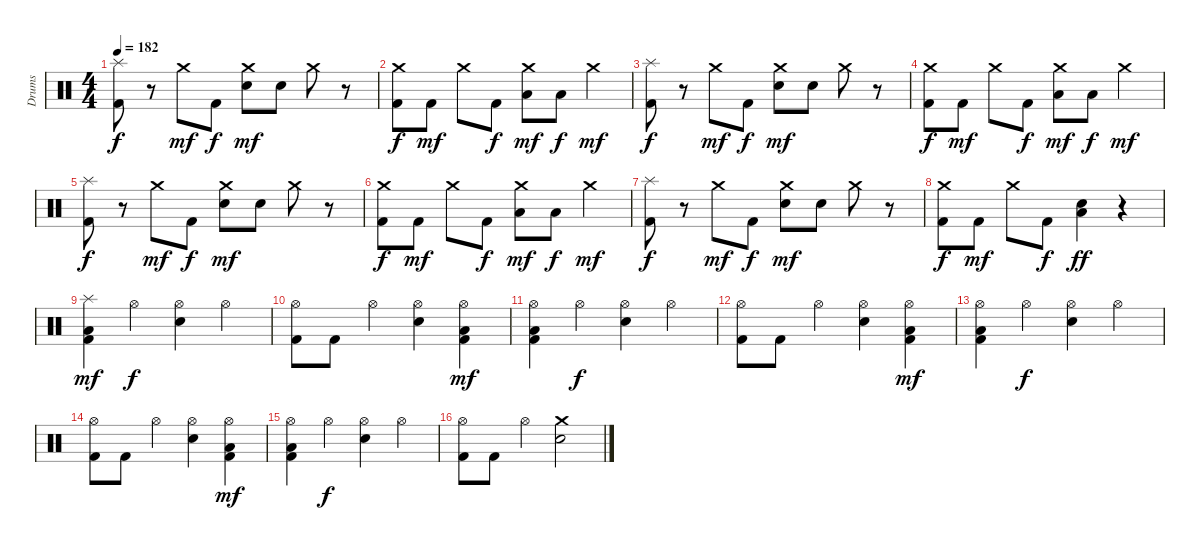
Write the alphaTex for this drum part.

\track ("Drums" "Drums") {instrument percussion}
\staff {score}
\articulation defaults
\ts (4 4)
\tempo 182
\clef neutral
\ks c
("Splash (hit)" "Kick (hit) 2").8{dy f} r.8 "Crash medium (hit)".8{dy mf} "Kick (hit) 2".8{dy f} ("Crash medium (hit)" "Snare (hit) 2").8{dy mf} "Snare (hit) 2".8 "Crash medium (hit)".8 r.8 |
("Crash medium (hit)" "Kick (hit) 2").8{dy f} "Kick (hit) 2".8{dy mf} "Crash medium (hit)".8 "Kick (hit) 2".8{dy f} ("Crash medium (hit)" "Low Tom (hit)").8{dy mf} "Low Floor Tom (hit)".8{dy f} "Crash medium (hit)".4{dy mf} |
("Splash (hit)" "Kick (hit) 2").8{dy f} r.8 "Crash medium (hit)".8{dy mf} "Kick (hit) 2".8{dy f} ("Crash medium (hit)" "Snare (hit) 2").8{dy mf} "Snare (hit) 2".8 "Crash medium (hit)".8 r.8 |
("Crash medium (hit)" "Kick (hit) 2").8{dy f} "Kick (hit) 2".8{dy mf} "Crash medium (hit)".8 "Kick (hit) 2".8{dy f} ("Crash medium (hit)" "Low Tom (hit)").8{dy mf} "Low Floor Tom (hit)".8{dy f} "Crash medium (hit)".4{dy mf} |
("Splash (hit)" "Kick (hit) 2").8{dy f} r.8 "Crash medium (hit)".8{dy mf} "Kick (hit) 2".8{dy f} ("Crash medium (hit)" "Snare (hit) 2").8{dy mf} "Snare (hit) 2".8 "Crash medium (hit)".8 r.8 |
("Crash medium (hit)" "Kick (hit) 2").8{dy f} "Kick (hit) 2".8{dy mf} "Crash medium (hit)".8 "Kick (hit) 2".8{dy f} ("Crash medium (hit)" "Low Tom (hit)").8{dy mf} "Low Floor Tom (hit)".8{dy f} "Crash medium (hit)".4{dy mf} |
("Splash (hit)" "Kick (hit) 2").8{dy f} r.8 "Crash medium (hit)".8{dy mf} "Kick (hit) 2".8{dy f} ("Crash medium (hit)" "Snare (hit) 2").8{dy mf} "Snare (hit) 2".8 "Crash medium (hit)".8 r.8 |
("Crash medium (hit)" "Kick (hit) 2").8{dy f} "Kick (hit) 2".8{dy mf} "Crash medium (hit)".8 "Kick (hit) 2".8{dy f} ("Low Floor Tom (hit)" "Snare (hit) 2").4{dy ff} r.4 |
("Splash (hit)" "Low Floor Tom (hit)" "Kick (hit) 2").4{dy mf} "Hi-Hat (open)".4{dy f} ("Hi-Hat (open)" "Snare (hit) 2").4 "Hi-Hat (open)".4 |
("Hi-Hat (open)" "Kick (hit) 2").8 "Kick (hit) 2".8 "Hi-Hat (open)".4 ("Hi-Hat (open)" "Snare (hit) 2").4 ("Hi-Hat (open)" "Low Floor Tom (hit)" "Kick (hit) 2").4{dy mf} |
("Hi-Hat (open)" "Low Floor Tom (hit)" "Kick (hit) 2").4 "Hi-Hat (open)".4{dy f} ("Hi-Hat (open)" "Snare (hit) 2").4 "Hi-Hat (open)".4 |
("Hi-Hat (open)" "Kick (hit) 2").8 "Kick (hit) 2".8 "Hi-Hat (open)".4 ("Hi-Hat (open)" "Snare (hit) 2").4 ("Hi-Hat (open)" "Low Floor Tom (hit)" "Kick (hit) 2").4{dy mf} |
("Hi-Hat (open)" "Low Floor Tom (hit)" "Kick (hit) 2").4 "Hi-Hat (open)".4{dy f} ("Hi-Hat (open)" "Snare (hit) 2").4 "Hi-Hat (open)".4 |
("Hi-Hat (open)" "Kick (hit) 2").8 "Kick (hit) 2".8 "Hi-Hat (open)".4 ("Hi-Hat (open)" "Snare (hit) 2").4 ("Hi-Hat (open)" "Low Floor Tom (hit)" "Kick (hit) 2").4{dy mf} |
("Hi-Hat (open)" "Low Floor Tom (hit)" "Kick (hit) 2").4 "Hi-Hat (open)".4{dy f} ("Hi-Hat (open)" "Snare (hit) 2").4 "Hi-Hat (open)".4 |
("Hi-Hat (open)" "Kick (hit) 2").8 "Kick (hit) 2".8 "Hi-Hat (open)".4 ("Crash medium (hit)" "Snare (hit) 2").2
